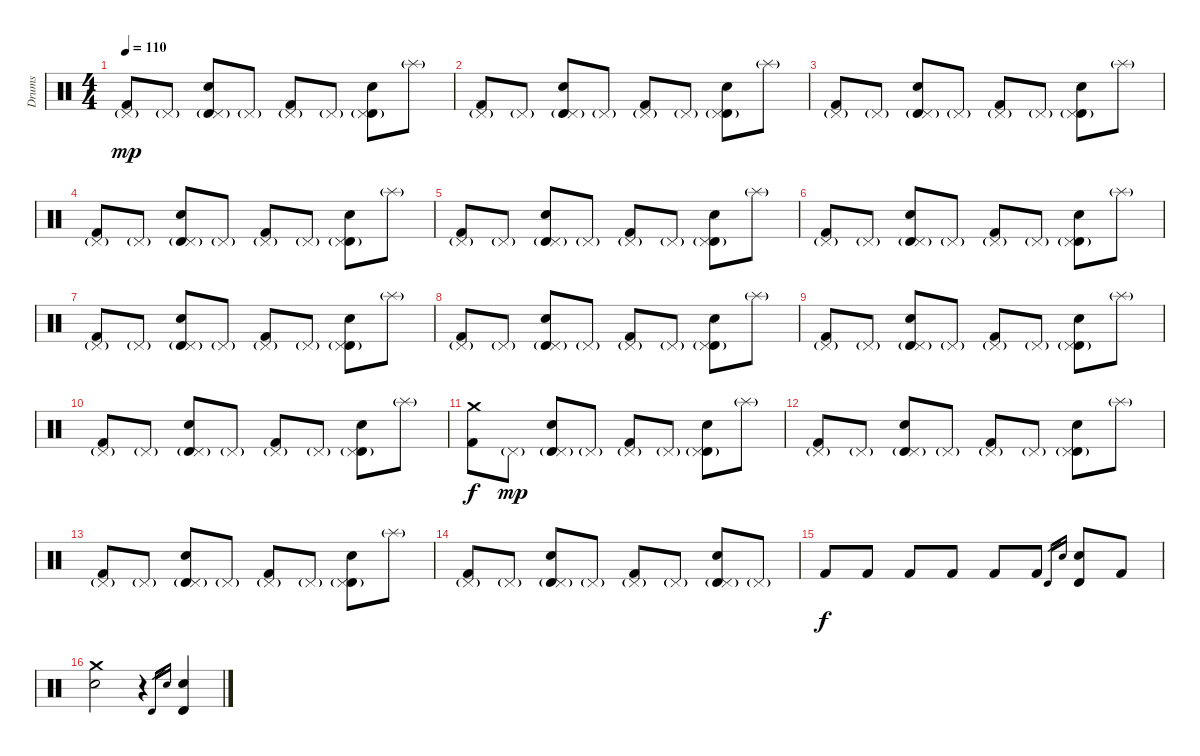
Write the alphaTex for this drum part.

\track ("Drums" "Drums") {instrument percussion}
\staff {score}
\articulation defaults
\ts (4 4)
\tempo 110
\clef neutral
\ks c
("Kick (hit) 2" "Pedal Hi-Hat (hit)"{g}).8{dy mp} "Pedal Hi-Hat (hit)"{g}.8 ("Timbale high (hit)" "Electric Snare (hit)" "Pedal Hi-Hat (hit)"{g}).8 "Pedal Hi-Hat (hit)"{g}.8 ("Kick (hit) 2" "Pedal Hi-Hat (hit)"{g}).8 "Pedal Hi-Hat (hit)"{g}.8 ("Timbale high (hit)" "Electric Snare (hit)" "Pedal Hi-Hat (hit)"{g}).8 "Splash (hit)"{g}.8 |
("Kick (hit) 2" "Pedal Hi-Hat (hit)"{g}).8 "Pedal Hi-Hat (hit)"{g}.8 ("Timbale high (hit)" "Electric Snare (hit)" "Pedal Hi-Hat (hit)"{g}).8 "Pedal Hi-Hat (hit)"{g}.8 ("Kick (hit) 2" "Pedal Hi-Hat (hit)"{g}).8 "Pedal Hi-Hat (hit)"{g}.8 ("Timbale high (hit)" "Electric Snare (hit)" "Pedal Hi-Hat (hit)"{g}).8 "Splash (hit)"{g}.8 |
("Kick (hit) 2" "Pedal Hi-Hat (hit)"{g}).8 "Pedal Hi-Hat (hit)"{g}.8 ("Timbale high (hit)" "Electric Snare (hit)" "Pedal Hi-Hat (hit)"{g}).8 "Pedal Hi-Hat (hit)"{g}.8 ("Kick (hit) 2" "Pedal Hi-Hat (hit)"{g}).8 "Pedal Hi-Hat (hit)"{g}.8 ("Timbale high (hit)" "Electric Snare (hit)" "Pedal Hi-Hat (hit)"{g}).8 "Splash (hit)"{g}.8 |
("Kick (hit) 2" "Pedal Hi-Hat (hit)"{g}).8 "Pedal Hi-Hat (hit)"{g}.8 ("Timbale high (hit)" "Electric Snare (hit)" "Pedal Hi-Hat (hit)"{g}).8 "Pedal Hi-Hat (hit)"{g}.8 ("Kick (hit) 2" "Pedal Hi-Hat (hit)"{g}).8 "Pedal Hi-Hat (hit)"{g}.8 ("Timbale high (hit)" "Electric Snare (hit)" "Pedal Hi-Hat (hit)"{g}).8 "Splash (hit)"{g}.8 |
("Kick (hit) 2" "Pedal Hi-Hat (hit)"{g}).8 "Pedal Hi-Hat (hit)"{g}.8 ("Timbale high (hit)" "Electric Snare (hit)" "Pedal Hi-Hat (hit)"{g}).8 "Pedal Hi-Hat (hit)"{g}.8 ("Kick (hit) 2" "Pedal Hi-Hat (hit)"{g}).8 "Pedal Hi-Hat (hit)"{g}.8 ("Timbale high (hit)" "Electric Snare (hit)" "Pedal Hi-Hat (hit)"{g}).8 "Splash (hit)"{g}.8 |
("Kick (hit) 2" "Pedal Hi-Hat (hit)"{g}).8 "Pedal Hi-Hat (hit)"{g}.8 ("Timbale high (hit)" "Electric Snare (hit)" "Pedal Hi-Hat (hit)"{g}).8 "Pedal Hi-Hat (hit)"{g}.8 ("Kick (hit) 2" "Pedal Hi-Hat (hit)"{g}).8 "Pedal Hi-Hat (hit)"{g}.8 ("Timbale high (hit)" "Electric Snare (hit)" "Pedal Hi-Hat (hit)"{g}).8 "Splash (hit)"{g}.8 |
("Kick (hit) 2" "Pedal Hi-Hat (hit)"{g}).8 "Pedal Hi-Hat (hit)"{g}.8 ("Timbale high (hit)" "Electric Snare (hit)" "Pedal Hi-Hat (hit)"{g}).8 "Pedal Hi-Hat (hit)"{g}.8 ("Kick (hit) 2" "Pedal Hi-Hat (hit)"{g}).8 "Pedal Hi-Hat (hit)"{g}.8 ("Timbale high (hit)" "Electric Snare (hit)" "Pedal Hi-Hat (hit)"{g}).8 "Splash (hit)"{g}.8 |
("Kick (hit) 2" "Pedal Hi-Hat (hit)"{g}).8 "Pedal Hi-Hat (hit)"{g}.8 ("Timbale high (hit)" "Electric Snare (hit)" "Pedal Hi-Hat (hit)"{g}).8 "Pedal Hi-Hat (hit)"{g}.8 ("Kick (hit) 2" "Pedal Hi-Hat (hit)"{g}).8 "Pedal Hi-Hat (hit)"{g}.8 ("Timbale high (hit)" "Electric Snare (hit)" "Pedal Hi-Hat (hit)"{g}).8 "Splash (hit)"{g}.8 |
("Kick (hit) 2" "Pedal Hi-Hat (hit)"{g}).8 "Pedal Hi-Hat (hit)"{g}.8 ("Timbale high (hit)" "Electric Snare (hit)" "Pedal Hi-Hat (hit)"{g}).8 "Pedal Hi-Hat (hit)"{g}.8 ("Kick (hit) 2" "Pedal Hi-Hat (hit)"{g}).8 "Pedal Hi-Hat (hit)"{g}.8 ("Timbale high (hit)" "Electric Snare (hit)" "Pedal Hi-Hat (hit)"{g}).8 "Splash (hit)"{g}.8 |
("Kick (hit) 2" "Pedal Hi-Hat (hit)"{g}).8 "Pedal Hi-Hat (hit)"{g}.8 ("Timbale high (hit)" "Electric Snare (hit)" "Pedal Hi-Hat (hit)"{g}).8 "Pedal Hi-Hat (hit)"{g}.8 ("Kick (hit) 2" "Pedal Hi-Hat (hit)"{g}).8 "Pedal Hi-Hat (hit)"{g}.8 ("Timbale high (hit)" "Electric Snare (hit)" "Pedal Hi-Hat (hit)"{g}).8 "Splash (hit)"{g}.8 |
\section ("" "")
("Kick (hit) 2" "Crash medium (hit)").8{dy f} "Pedal Hi-Hat (hit)"{g}.8{dy mp} ("Timbale high (hit)" "Electric Snare (hit)" "Pedal Hi-Hat (hit)"{g}).8 "Pedal Hi-Hat (hit)"{g}.8 ("Kick (hit) 2" "Pedal Hi-Hat (hit)"{g}).8 "Pedal Hi-Hat (hit)"{g}.8 ("Timbale high (hit)" "Electric Snare (hit)" "Pedal Hi-Hat (hit)"{g}).8 "Splash (hit)"{g}.8 |
("Kick (hit) 2" "Pedal Hi-Hat (hit)"{g}).8 "Pedal Hi-Hat (hit)"{g}.8 ("Timbale high (hit)" "Electric Snare (hit)" "Pedal Hi-Hat (hit)"{g}).8 "Pedal Hi-Hat (hit)"{g}.8 ("Kick (hit) 2" "Pedal Hi-Hat (hit)"{g}).8 "Pedal Hi-Hat (hit)"{g}.8 ("Timbale high (hit)" "Electric Snare (hit)" "Pedal Hi-Hat (hit)"{g}).8 "Splash (hit)"{g}.8 |
("Kick (hit) 2" "Pedal Hi-Hat (hit)"{g}).8 "Pedal Hi-Hat (hit)"{g}.8 ("Timbale high (hit)" "Electric Snare (hit)" "Pedal Hi-Hat (hit)"{g}).8 "Pedal Hi-Hat (hit)"{g}.8 ("Kick (hit) 2" "Pedal Hi-Hat (hit)"{g}).8 "Pedal Hi-Hat (hit)"{g}.8 ("Timbale high (hit)" "Electric Snare (hit)" "Pedal Hi-Hat (hit)"{g}).8 "Splash (hit)"{g}.8 |
("Kick (hit) 2" "Pedal Hi-Hat (hit)"{g}).8 "Pedal Hi-Hat (hit)"{g}.8 ("Timbale high (hit)" "Electric Snare (hit)" "Pedal Hi-Hat (hit)"{g}).8 "Pedal Hi-Hat (hit)"{g}.8 ("Kick (hit) 2" "Pedal Hi-Hat (hit)"{g}).8 "Pedal Hi-Hat (hit)"{g}.8 ("Timbale high (hit)" "Electric Snare (hit)" "Pedal Hi-Hat (hit)"{g}).8 "Pedal Hi-Hat (hit)"{g}.8 |
"Kick (hit) 2".8{dy f} "Kick (hit) 2".8 "Kick (hit) 2".8 "Kick (hit) 2".8 "Kick (hit) 2".8 "Kick (hit) 2".8 "Timbale high (hit)".16{gr} "Electric Snare (hit)".16{gr} ("Timbale high (hit)" "Electric Snare (hit)").8 "Kick (hit) 2".8 |
("Electric Snare (hit)" "Crash medium (hit)").2 r.4 "Timbale high (hit)".16{gr} "Electric Snare (hit)".16{gr} ("Timbale high (hit)" "Electric Snare (hit)").4
